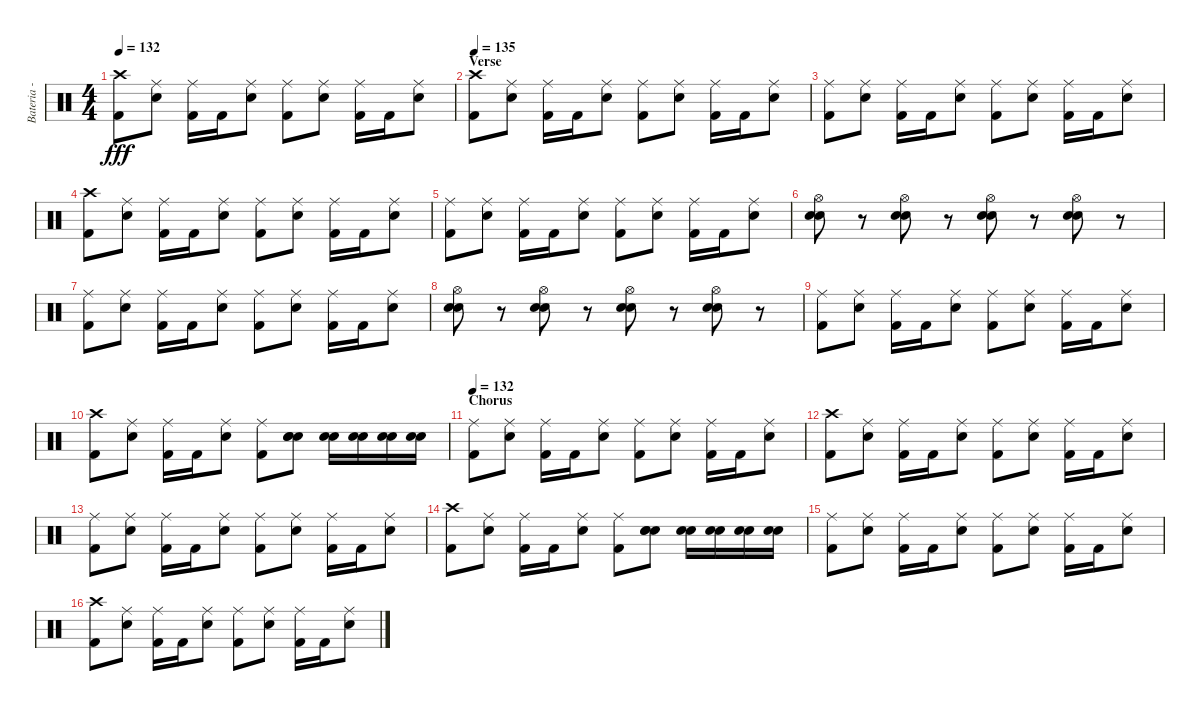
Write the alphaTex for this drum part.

\track ("Bateria - Larzon" "Bateria - ") {instrument percussion}
\staff {score}
\articulation defaults
\ts (4 4)
\tempo 132
\clef neutral
\ks c
("Kick (hit) 2" "Crash high (hit)").8{dy fff} ("Electric Snare (hit)" "Ride (middle)").8 ("Ride (middle)" "Kick (hit) 2").16 "Kick (hit) 2".16 ("Electric Snare (hit)" "Ride (middle)").8 ("Kick (hit) 2" "Ride (middle)").8 ("Electric Snare (hit)" "Ride (middle)").8 ("Kick (hit) 2" "Ride (middle)").16 "Kick (hit) 2".16 ("Electric Snare (hit)" "Ride (middle)").8 |
\section ("" "Verse")
\tempo 135
("Kick (hit) 2" "Crash high (hit)").8 ("Electric Snare (hit)" "Ride (middle)").8 ("Ride (middle)" "Kick (hit) 2").16 "Kick (hit) 2".16 ("Electric Snare (hit)" "Ride (middle)").8 ("Kick (hit) 2" "Ride (middle)").8 ("Electric Snare (hit)" "Ride (middle)").8 ("Kick (hit) 2" "Ride (middle)").16 "Kick (hit) 2".16 ("Electric Snare (hit)" "Ride (middle)").8 |
("Kick (hit) 2" "Ride (middle)").8 ("Electric Snare (hit)" "Ride (middle)").8 ("Kick (hit) 2" "Ride (middle)").16 "Kick (hit) 2".16 ("Electric Snare (hit)" "Ride (middle)").8 ("Kick (hit) 2" "Ride (middle)").8 ("Electric Snare (hit)" "Ride (middle)").8 ("Kick (hit) 2" "Ride (middle)").16 "Kick (hit) 2".16 ("Electric Snare (hit)" "Ride (middle)").8 |
("Kick (hit) 2" "Crash high (hit)").8 ("Electric Snare (hit)" "Ride (middle)").8 ("Ride (middle)" "Kick (hit) 2").16 "Kick (hit) 2".16 ("Electric Snare (hit)" "Ride (middle)").8 ("Kick (hit) 2" "Ride (middle)").8 ("Electric Snare (hit)" "Ride (middle)").8 ("Kick (hit) 2" "Ride (middle)").16 "Kick (hit) 2".16 ("Electric Snare (hit)" "Ride (middle)").8 |
("Kick (hit) 2" "Ride (middle)").8 ("Electric Snare (hit)" "Ride (middle)").8 ("Kick (hit) 2" "Ride (middle)").16 "Kick (hit) 2".16 ("Electric Snare (hit)" "Ride (middle)").8 ("Kick (hit) 2" "Ride (middle)").8 ("Electric Snare (hit)" "Ride (middle)").8 ("Kick (hit) 2" "Ride (middle)").16 "Kick (hit) 2".16 ("Electric Snare (hit)" "Ride (middle)").8 |
("Electric Snare (hit)" "Snare (hit) 2" "Hi-Hat (open)").8 r.8 ("Electric Snare (hit)" "Snare (hit) 2" "Hi-Hat (open)").8 r.8 ("Electric Snare (hit)" "Snare (hit) 2" "Hi-Hat (open)").8 r.8 ("Electric Snare (hit)" "Snare (hit) 2" "Hi-Hat (open)").8 r.8 |
("Kick (hit) 2" "Ride (middle)").8 ("Electric Snare (hit)" "Ride (middle)").8 ("Kick (hit) 2" "Ride (middle)").16 "Kick (hit) 2".16 ("Electric Snare (hit)" "Ride (middle)").8 ("Kick (hit) 2" "Ride (middle)").8 ("Electric Snare (hit)" "Ride (middle)").8 ("Kick (hit) 2" "Ride (middle)").16 "Kick (hit) 2".16 ("Electric Snare (hit)" "Ride (middle)").8 |
("Electric Snare (hit)" "Snare (hit) 2" "Hi-Hat (open)").8 r.8 ("Electric Snare (hit)" "Snare (hit) 2" "Hi-Hat (open)").8 r.8 ("Electric Snare (hit)" "Snare (hit) 2" "Hi-Hat (open)").8 r.8 ("Electric Snare (hit)" "Snare (hit) 2" "Hi-Hat (open)").8 r.8 |
("Kick (hit) 2" "Ride (middle)").8 ("Electric Snare (hit)" "Ride (middle)").8 ("Kick (hit) 2" "Ride (middle)").16 "Kick (hit) 2".16 ("Electric Snare (hit)" "Ride (middle)").8 ("Kick (hit) 2" "Ride (middle)").8 ("Electric Snare (hit)" "Ride (middle)").8 ("Kick (hit) 2" "Ride (middle)").16 "Kick (hit) 2".16 ("Electric Snare (hit)" "Ride (middle)").8 |
("Kick (hit) 2" "Crash high (hit)").8 ("Electric Snare (hit)" "Ride (middle)").8 ("Ride (middle)" "Kick (hit) 2").16 "Kick (hit) 2".16 ("Electric Snare (hit)" "Ride (middle)").8 ("Kick (hit) 2" "Ride (middle)").8 ("Electric Snare (hit)" "Electric Snare (hit)" "Snare (hit) 2").8 ("Electric Snare (hit)" "Snare (hit) 2").16 ("Electric Snare (hit)" "Snare (hit) 2").16 ("Electric Snare (hit)" "Snare (hit) 2").16 ("Electric Snare (hit)" "Snare (hit) 2").16 |
\section ("" "Chorus")
\tempo 132
("Kick (hit) 2" "Ride (middle)").8 ("Electric Snare (hit)" "Ride (middle)").8 ("Kick (hit) 2" "Ride (middle)").16 "Kick (hit) 2".16 ("Electric Snare (hit)" "Ride (middle)").8 ("Kick (hit) 2" "Ride (middle)").8 ("Electric Snare (hit)" "Ride (middle)").8 ("Kick (hit) 2" "Ride (middle)").16 "Kick (hit) 2".16 ("Electric Snare (hit)" "Ride (middle)").8 |
("Kick (hit) 2" "Crash high (hit)").8 ("Electric Snare (hit)" "Ride (middle)").8 ("Ride (middle)" "Kick (hit) 2").16 "Kick (hit) 2".16 ("Electric Snare (hit)" "Ride (middle)").8 ("Kick (hit) 2" "Ride (middle)").8 ("Electric Snare (hit)" "Ride (middle)").8 ("Kick (hit) 2" "Ride (middle)").16 "Kick (hit) 2".16 ("Electric Snare (hit)" "Ride (middle)").8 |
("Kick (hit) 2" "Ride (middle)").8 ("Electric Snare (hit)" "Ride (middle)").8 ("Kick (hit) 2" "Ride (middle)").16 "Kick (hit) 2".16 ("Electric Snare (hit)" "Ride (middle)").8 ("Kick (hit) 2" "Ride (middle)").8 ("Electric Snare (hit)" "Ride (middle)").8 ("Kick (hit) 2" "Ride (middle)").16 "Kick (hit) 2".16 ("Electric Snare (hit)" "Ride (middle)").8 |
("Kick (hit) 2" "Crash high (hit)").8 ("Electric Snare (hit)" "Ride (middle)").8 ("Ride (middle)" "Kick (hit) 2").16 "Kick (hit) 2".16 ("Electric Snare (hit)" "Ride (middle)").8 ("Kick (hit) 2" "Ride (middle)").8 ("Electric Snare (hit)" "Electric Snare (hit)" "Snare (hit) 2").8 ("Electric Snare (hit)" "Snare (hit) 2").16 ("Electric Snare (hit)" "Snare (hit) 2").16 ("Electric Snare (hit)" "Snare (hit) 2").16 ("Electric Snare (hit)" "Snare (hit) 2").16 |
("Kick (hit) 2" "Ride (middle)").8 ("Electric Snare (hit)" "Ride (middle)").8 ("Kick (hit) 2" "Ride (middle)").16 "Kick (hit) 2".16 ("Electric Snare (hit)" "Ride (middle)").8 ("Kick (hit) 2" "Ride (middle)").8 ("Electric Snare (hit)" "Ride (middle)").8 ("Kick (hit) 2" "Ride (middle)").16 "Kick (hit) 2".16 ("Electric Snare (hit)" "Ride (middle)").8 |
("Kick (hit) 2" "Crash high (hit)").8 ("Electric Snare (hit)" "Ride (middle)").8 ("Ride (middle)" "Kick (hit) 2").16 "Kick (hit) 2".16 ("Electric Snare (hit)" "Ride (middle)").8 ("Kick (hit) 2" "Ride (middle)").8 ("Electric Snare (hit)" "Ride (middle)").8 ("Kick (hit) 2" "Ride (middle)").16 "Kick (hit) 2".16 ("Electric Snare (hit)" "Ride (middle)").8
